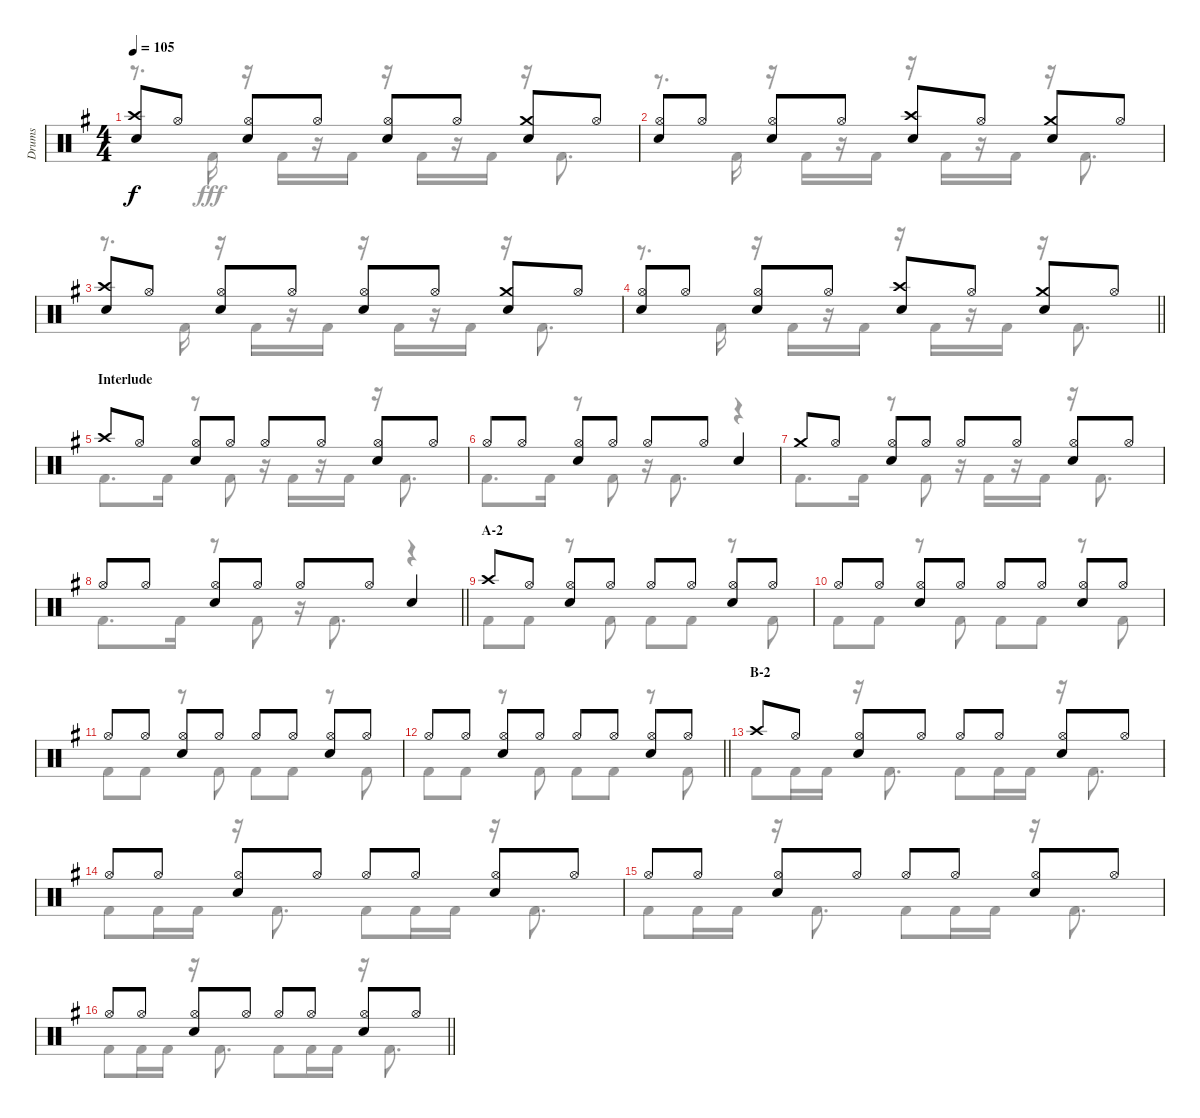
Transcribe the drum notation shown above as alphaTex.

\track ("Drums" "Drums") {instrument percussion}
\staff {score}
\articulation defaults
\voice
\ts (4 4)
\tempo 105
\clef neutral
\ks g
("Crash high (hit)" "Snare (hit) 2").8{dy f} "Hi-Hat (open)".8 ("Hi-Hat (open)" "Snare (hit) 2").8 "Hi-Hat (open)".8 ("Hi-Hat (open)" "Snare (hit) 2").8 "Hi-Hat (open)".8 ("Crash medium (hit)" "Snare (hit) 2").8 "Hi-Hat (open)".8 |
("Hi-Hat (open)" "Snare (hit) 2").8 "Hi-Hat (open)".8 ("Hi-Hat (open)" "Snare (hit) 2").8 "Hi-Hat (open)".8 ("Crash high (hit)" "Snare (hit) 2").8 "Hi-Hat (open)".8 ("Crash medium (hit)" "Snare (hit) 2").8 "Hi-Hat (open)".8 |
("Crash high (hit)" "Snare (hit) 2").8 "Hi-Hat (open)".8 ("Hi-Hat (open)" "Snare (hit) 2").8 "Hi-Hat (open)".8 ("Hi-Hat (open)" "Snare (hit) 2").8 "Hi-Hat (open)".8 ("Crash medium (hit)" "Snare (hit) 2").8 "Hi-Hat (open)".8 |
\barLineRight lightlight
("Hi-Hat (open)" "Snare (hit) 2").8 "Hi-Hat (open)".8 ("Hi-Hat (open)" "Snare (hit) 2").8 "Hi-Hat (open)".8 ("Crash high (hit)" "Snare (hit) 2").8 "Hi-Hat (open)".8 ("Crash medium (hit)" "Snare (hit) 2").8 "Hi-Hat (open)".8 |
\section ("" "Interlude")
"Crash high (hit)".8 "Hi-Hat (open)".8 ("Hi-Hat (open)" "Snare (hit) 2").8 "Hi-Hat (open)".8 "Hi-Hat (open)".8 "Hi-Hat (open)".8 ("Hi-Hat (open)" "Snare (hit) 2").8 "Hi-Hat (open)".8 |
"Hi-Hat (open)".8 "Hi-Hat (open)".8 ("Hi-Hat (open)" "Snare (hit) 2").8 "Hi-Hat (open)".8 "Hi-Hat (open)".8 "Hi-Hat (open)".8 "Snare (hit) 2".4 |
"Crash medium (hit)".8 "Hi-Hat (open)".8 ("Hi-Hat (open)" "Snare (hit) 2").8 "Hi-Hat (open)".8 "Hi-Hat (open)".8 "Hi-Hat (open)".8 ("Hi-Hat (open)" "Snare (hit) 2").8 "Hi-Hat (open)".8 |
\barLineRight lightlight "Hi-Hat (open)".8 "Hi-Hat (open)".8
("Hi-Hat (open)" "Snare (hit) 2").8 "Hi-Hat (open)".8 "Hi-Hat (open)".8 "Hi-Hat (open)".8 "Snare (hit) 2".4 |
\section ("" "A-2")
"Crash high (hit)".8 "Hi-Hat (open)".8 ("Hi-Hat (open)" "Snare (hit) 2").8 "Hi-Hat (open)".8 "Hi-Hat (open)".8 "Hi-Hat (open)".8 ("Hi-Hat (open)" "Snare (hit) 2").8 "Hi-Hat (open)".8 |
"Hi-Hat (open)".8 "Hi-Hat (open)".8 ("Hi-Hat (open)" "Snare (hit) 2").8 "Hi-Hat (open)".8 "Hi-Hat (open)".8 "Hi-Hat (open)".8 ("Hi-Hat (open)" "Snare (hit) 2").8 "Hi-Hat (open)".8 |
"Hi-Hat (open)".8 "Hi-Hat (open)".8 ("Hi-Hat (open)" "Snare (hit) 2").8 "Hi-Hat (open)".8 "Hi-Hat (open)".8 "Hi-Hat (open)".8 ("Hi-Hat (open)" "Snare (hit) 2").8 "Hi-Hat (open)".8 |
\barLineRight lightlight "Hi-Hat (open)".8 "Hi-Hat (open)".8
("Hi-Hat (open)" "Snare (hit) 2").8 "Hi-Hat (open)".8 "Hi-Hat (open)".8 "Hi-Hat (open)".8 ("Hi-Hat (open)" "Snare (hit) 2").8 "Hi-Hat (open)".8 |
\section ("" "B-2")
"Crash high (hit)".8 "Hi-Hat (open)".8 ("Hi-Hat (open)" "Snare (hit) 2").8 "Hi-Hat (open)".8 "Hi-Hat (open)".8 "Hi-Hat (open)".8 ("Hi-Hat (open)" "Snare (hit) 2").8 "Hi-Hat (open)".8 |
"Hi-Hat (open)".8 "Hi-Hat (open)".8 ("Hi-Hat (open)" "Snare (hit) 2").8 "Hi-Hat (open)".8 "Hi-Hat (open)".8 "Hi-Hat (open)".8 ("Hi-Hat (open)" "Snare (hit) 2").8 "Hi-Hat (open)".8 |
"Hi-Hat (open)".8 "Hi-Hat (open)".8 ("Hi-Hat (open)" "Snare (hit) 2").8 "Hi-Hat (open)".8 "Hi-Hat (open)".8 "Hi-Hat (open)".8 ("Hi-Hat (open)" "Snare (hit) 2").8 "Hi-Hat (open)".8 |
\barLineRight lightlight "Hi-Hat (open)".8 "Hi-Hat (open)".8
("Hi-Hat (open)" "Snare (hit) 2").8 "Hi-Hat (open)".8 "Hi-Hat (open)".8 "Hi-Hat (open)".8 ("Hi-Hat (open)" "Snare (hit) 2").8 "Hi-Hat (open)".8
\voice
\clef neutral
\ottava regular
\simile none
\ks g
r.8{d dy fff} "Kick (hit) 2".16 r.16 "Kick (hit) 2".16 r.16 "Kick (hit) 2".16 r.16 "Kick (hit) 2".16 r.16 "Kick (hit) 2".16 r.16 "Kick (hit) 2".8{d} |
r.8{d} "Kick (hit) 2".16 r.16 "Kick (hit) 2".16 r.16 "Kick (hit) 2".16 r.16 "Kick (hit) 2".16 r.16 "Kick (hit) 2".16 r.16 "Kick (hit) 2".8{d} |
r.8{d} "Kick (hit) 2".16 r.16 "Kick (hit) 2".16 r.16 "Kick (hit) 2".16 r.16 "Kick (hit) 2".16 r.16 "Kick (hit) 2".16 r.16 "Kick (hit) 2".8{d} |
\barLineRight lightlight
r.8{d} "Kick (hit) 2".16 r.16 "Kick (hit) 2".16 r.16 "Kick (hit) 2".16 r.16 "Kick (hit) 2".16 r.16 "Kick (hit) 2".16 r.16 "Kick (hit) 2".8{d} |
"Kick (hit) 2".8{d} "Kick (hit) 2".16 r.8 "Kick (hit) 2".8 r.16 "Kick (hit) 2".16 r.16 "Kick (hit) 2".16 r.16 "Kick (hit) 2".8{d} |
"Kick (hit) 2".8{d} "Kick (hit) 2".16 r.8 "Kick (hit) 2".8 r.16 "Kick (hit) 2".8{d} r.4 |
"Kick (hit) 2".8{d} "Kick (hit) 2".16 r.8 "Kick (hit) 2".8 r.16 "Kick (hit) 2".16 r.16 "Kick (hit) 2".16 r.16 "Kick (hit) 2".8{d} |
\barLineRight lightlight "Kick (hit) 2".8{d} "Kick (hit) 2".16
r.8 "Kick (hit) 2".8 r.16 "Kick (hit) 2".8{d} r.4 |
"Kick (hit) 2".8 "Kick (hit) 2".8 r.8 "Kick (hit) 2".8 "Kick (hit) 2".8 "Kick (hit) 2".8 r.8 "Kick (hit) 2".8 |
"Kick (hit) 2".8 "Kick (hit) 2".8 r.8 "Kick (hit) 2".8 "Kick (hit) 2".8 "Kick (hit) 2".8 r.8 "Kick (hit) 2".8 |
"Kick (hit) 2".8 "Kick (hit) 2".8 r.8 "Kick (hit) 2".8 "Kick (hit) 2".8 "Kick (hit) 2".8 r.8 "Kick (hit) 2".8 |
\barLineRight lightlight "Kick (hit) 2".8 "Kick (hit) 2".8
r.8 "Kick (hit) 2".8 "Kick (hit) 2".8 "Kick (hit) 2".8 r.8 "Kick (hit) 2".8 |
"Kick (hit) 2".8 "Kick (hit) 2".16 "Kick (hit) 2".16 r.16 "Kick (hit) 2".8{d} "Kick (hit) 2".8 "Kick (hit) 2".16 "Kick (hit) 2".16 r.16 "Kick (hit) 2".8{d} |
"Kick (hit) 2".8 "Kick (hit) 2".16 "Kick (hit) 2".16 r.16 "Kick (hit) 2".8{d} "Kick (hit) 2".8 "Kick (hit) 2".16 "Kick (hit) 2".16 r.16 "Kick (hit) 2".8{d} |
"Kick (hit) 2".8 "Kick (hit) 2".16 "Kick (hit) 2".16 r.16 "Kick (hit) 2".8{d} "Kick (hit) 2".8 "Kick (hit) 2".16 "Kick (hit) 2".16 r.16 "Kick (hit) 2".8{d} |
\barLineRight lightlight "Kick (hit) 2".8 "Kick (hit) 2".16 "Kick (hit) 2".16
r.16 "Kick (hit) 2".8{d} "Kick (hit) 2".8 "Kick (hit) 2".16 "Kick (hit) 2".16 r.16 "Kick (hit) 2".8{d}
